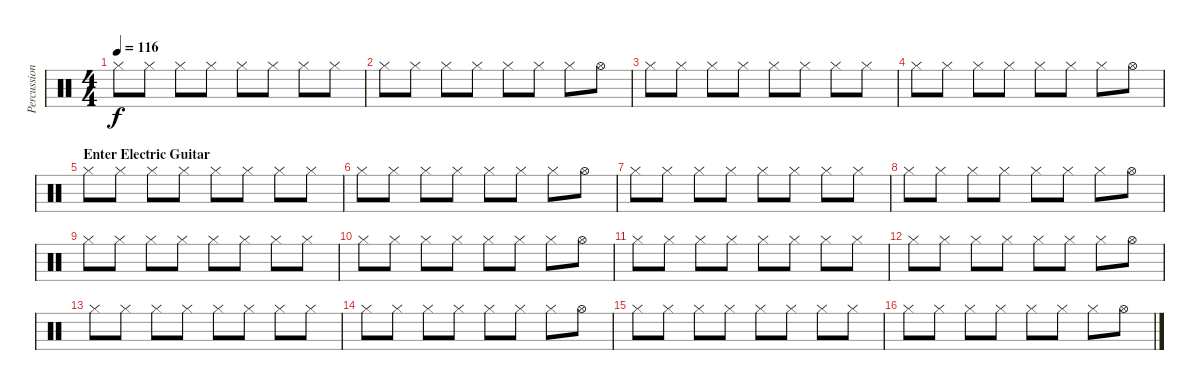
\track ("Percussion" "Percussion") {instrument percussion}
\staff {score}
\articulation defaults
\ts (4 4)
\tempo 116
\clef neutral
\ks c "Hi-Hat (closed)".8{dy f} "Hi-Hat (closed)".8 "Hi-Hat (closed)".8 "Hi-Hat (closed)".8 "Hi-Hat (closed)".8 "Hi-Hat (closed)".8 "Hi-Hat (closed)".8 "Hi-Hat (closed)".8
|
"Hi-Hat (closed)".8 "Hi-Hat (closed)".8 "Hi-Hat (closed)".8 "Hi-Hat (closed)".8 "Hi-Hat (closed)".8 "Hi-Hat (closed)".8 "Hi-Hat (closed)".8 "Hi-Hat (open)".8 |
"Hi-Hat (closed)".8 "Hi-Hat (closed)".8 "Hi-Hat (closed)".8 "Hi-Hat (closed)".8 "Hi-Hat (closed)".8 "Hi-Hat (closed)".8 "Hi-Hat (closed)".8 "Hi-Hat (closed)".8 |
"Hi-Hat (closed)".8 "Hi-Hat (closed)".8 "Hi-Hat (closed)".8 "Hi-Hat (closed)".8 "Hi-Hat (closed)".8 "Hi-Hat (closed)".8 "Hi-Hat (closed)".8 "Hi-Hat (open)".8 |
\section ("" "Enter Electric Guitar")
"Hi-Hat (closed)".8 "Hi-Hat (closed)".8 "Hi-Hat (closed)".8 "Hi-Hat (closed)".8 "Hi-Hat (closed)".8 "Hi-Hat (closed)".8 "Hi-Hat (closed)".8 "Hi-Hat (closed)".8 |
"Hi-Hat (closed)".8 "Hi-Hat (closed)".8 "Hi-Hat (closed)".8 "Hi-Hat (closed)".8 "Hi-Hat (closed)".8 "Hi-Hat (closed)".8 "Hi-Hat (closed)".8 "Hi-Hat (open)".8 |
"Hi-Hat (closed)".8 "Hi-Hat (closed)".8 "Hi-Hat (closed)".8 "Hi-Hat (closed)".8 "Hi-Hat (closed)".8 "Hi-Hat (closed)".8 "Hi-Hat (closed)".8 "Hi-Hat (closed)".8 |
"Hi-Hat (closed)".8 "Hi-Hat (closed)".8 "Hi-Hat (closed)".8 "Hi-Hat (closed)".8 "Hi-Hat (closed)".8 "Hi-Hat (closed)".8 "Hi-Hat (closed)".8 "Hi-Hat (open)".8 |
"Hi-Hat (closed)".8 "Hi-Hat (closed)".8 "Hi-Hat (closed)".8 "Hi-Hat (closed)".8 "Hi-Hat (closed)".8 "Hi-Hat (closed)".8 "Hi-Hat (closed)".8 "Hi-Hat (closed)".8 |
"Hi-Hat (closed)".8 "Hi-Hat (closed)".8 "Hi-Hat (closed)".8 "Hi-Hat (closed)".8 "Hi-Hat (closed)".8 "Hi-Hat (closed)".8 "Hi-Hat (closed)".8 "Hi-Hat (open)".8 |
"Hi-Hat (closed)".8 "Hi-Hat (closed)".8 "Hi-Hat (closed)".8 "Hi-Hat (closed)".8 "Hi-Hat (closed)".8 "Hi-Hat (closed)".8 "Hi-Hat (closed)".8 "Hi-Hat (closed)".8 |
"Hi-Hat (closed)".8 "Hi-Hat (closed)".8 "Hi-Hat (closed)".8 "Hi-Hat (closed)".8 "Hi-Hat (closed)".8 "Hi-Hat (closed)".8 "Hi-Hat (closed)".8 "Hi-Hat (open)".8 |
"Hi-Hat (closed)".8 "Hi-Hat (closed)".8 "Hi-Hat (closed)".8 "Hi-Hat (closed)".8 "Hi-Hat (closed)".8 "Hi-Hat (closed)".8 "Hi-Hat (closed)".8 "Hi-Hat (closed)".8 |
"Hi-Hat (closed)".8 "Hi-Hat (closed)".8 "Hi-Hat (closed)".8 "Hi-Hat (closed)".8 "Hi-Hat (closed)".8 "Hi-Hat (closed)".8 "Hi-Hat (closed)".8 "Hi-Hat (open)".8 |
"Hi-Hat (closed)".8 "Hi-Hat (closed)".8 "Hi-Hat (closed)".8 "Hi-Hat (closed)".8 "Hi-Hat (closed)".8 "Hi-Hat (closed)".8 "Hi-Hat (closed)".8 "Hi-Hat (closed)".8 |
"Hi-Hat (closed)".8 "Hi-Hat (closed)".8 "Hi-Hat (closed)".8 "Hi-Hat (closed)".8 "Hi-Hat (closed)".8 "Hi-Hat (closed)".8 "Hi-Hat (closed)".8 "Hi-Hat (open)".8
